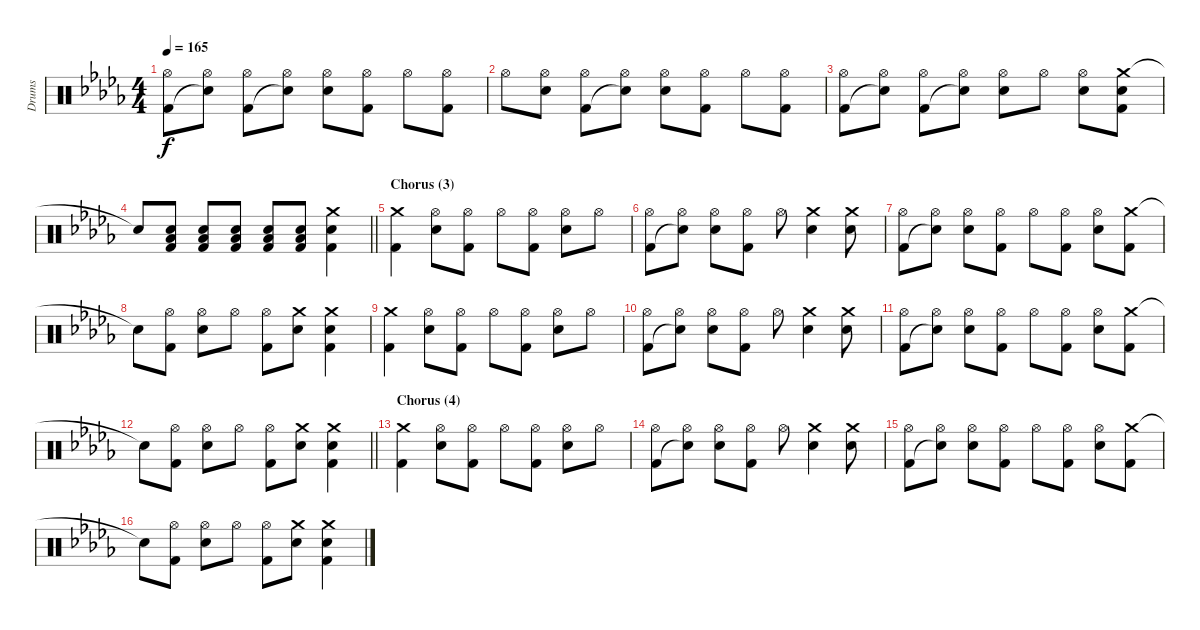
\track ("Drums" "Drums") {instrument percussion}
\staff {score}
\articulation defaults
\ts (4 4)
\tempo 165
\clef neutral
\ks bbminor
("Hi-Hat (open)" "Kick (hit) 2").8{dy f} ("Hi-Hat (open)" "Snare (hit)"{t}).8 ("Hi-Hat (open)" "Kick (hit) 2").8 ("Hi-Hat (open)" "Snare (hit)"{t}).8 ("Hi-Hat (open)" "Electric Snare (hit)").8 ("Hi-Hat (open)" "Kick (hit) 2").8 "Hi-Hat (open)".8 ("Hi-Hat (open)" "Kick (hit) 2").8 |
"Hi-Hat (open)".8 ("Hi-Hat (open)" "Electric Snare (hit)").8 ("Hi-Hat (open)" "Kick (hit) 2").8 ("Hi-Hat (open)" "Snare (hit)"{t}).8 ("Hi-Hat (open)" "Electric Snare (hit)").8 ("Hi-Hat (open)" "Kick (hit) 2").8 "Hi-Hat (open)".8 ("Hi-Hat (open)" "Kick (hit) 2").8 |
("Hi-Hat (open)" "Kick (hit) 2").8 ("Hi-Hat (open)" "Snare (hit)"{t}).8 ("Hi-Hat (open)" "Kick (hit) 2").8 ("Hi-Hat (open)" "Snare (hit)"{t}).8 ("Hi-Hat (open)" "Electric Snare (hit)").8 "Hi-Hat (open)".8 ("Hi-Hat (open)" "Electric Snare (hit)").8 ("Crash medium (hit)" "Electric Snare (hit)" "Kick (hit) 2").8 |
\barLineRight lightlight "Snare (hit)"{t}.8
("Electric Snare (hit)" "Low Floor Tom (hit)" "Kick (hit) 2").8 ("Electric Snare (hit)" "Low Floor Tom (hit)" "Kick (hit) 2").8 ("Electric Snare (hit)" "Low Floor Tom (hit)" "Kick (hit) 2").8 ("Electric Snare (hit)" "Low Floor Tom (hit)" "Kick (hit) 2").8 ("Electric Snare (hit)" "Low Floor Tom (hit)" "Kick (hit) 2").8 ("Crash medium (hit)" "Electric Snare (hit)" "Kick (hit) 2").4 |
\section ("" "Chorus (3)")
("Crash medium (hit)" "Kick (hit) 2").4 ("Hi-Hat (open)" "Electric Snare (hit)").8 ("Hi-Hat (open)" "Kick (hit) 2").8 "Hi-Hat (open)".8 ("Hi-Hat (open)" "Kick (hit) 2").8 ("Hi-Hat (open)" "Electric Snare (hit)").8 "Hi-Hat (open)".8 |
("Hi-Hat (open)" "Kick (hit) 2").8 ("Hi-Hat (open)" "Snare (hit)"{t}).8 ("Hi-Hat (open)" "Electric Snare (hit)").8 ("Hi-Hat (open)" "Kick (hit) 2").8 "Hi-Hat (open)".8 ("Crash medium (hit)" "Electric Snare (hit)").4 ("Crash medium (hit)" "Electric Snare (hit)").8 |
("Hi-Hat (open)" "Kick (hit) 2").8 ("Hi-Hat (open)" "Snare (hit)"{t}).8 ("Hi-Hat (open)" "Electric Snare (hit)").8 ("Hi-Hat (open)" "Kick (hit) 2").8 "Hi-Hat (open)".8 ("Hi-Hat (open)" "Kick (hit) 2").8 ("Hi-Hat (open)" "Electric Snare (hit)").8 ("Crash medium (hit)" "Kick (hit) 2").8 |
"Snare (hit)"{t}.8 ("Hi-Hat (open)" "Kick (hit) 2").8 ("Hi-Hat (open)" "Electric Snare (hit)").8 "Hi-Hat (open)".8 ("Hi-Hat (open)" "Kick (hit) 2").8 ("Crash medium (hit)" "Electric Snare (hit)").8 ("Crash medium (hit)" "Electric Snare (hit)" "Kick (hit) 2").4 |
("Crash medium (hit)" "Kick (hit) 2").4 ("Hi-Hat (open)" "Electric Snare (hit)").8 ("Hi-Hat (open)" "Kick (hit) 2").8 "Hi-Hat (open)".8 ("Hi-Hat (open)" "Kick (hit) 2").8 ("Hi-Hat (open)" "Electric Snare (hit)").8 "Hi-Hat (open)".8 |
("Hi-Hat (open)" "Kick (hit) 2").8 ("Hi-Hat (open)" "Snare (hit)"{t}).8 ("Hi-Hat (open)" "Electric Snare (hit)").8 ("Hi-Hat (open)" "Kick (hit) 2").8 "Hi-Hat (open)".8 ("Crash medium (hit)" "Electric Snare (hit)").4 ("Crash medium (hit)" "Electric Snare (hit)").8 |
("Hi-Hat (open)" "Kick (hit) 2").8 ("Hi-Hat (open)" "Snare (hit)"{t}).8 ("Hi-Hat (open)" "Electric Snare (hit)").8 ("Hi-Hat (open)" "Kick (hit) 2").8 "Hi-Hat (open)".8 ("Hi-Hat (open)" "Kick (hit) 2").8 ("Hi-Hat (open)" "Electric Snare (hit)").8 ("Crash medium (hit)" "Kick (hit) 2").8 |
\barLineRight lightlight "Snare (hit)"{t}.8
("Hi-Hat (open)" "Kick (hit) 2").8 ("Hi-Hat (open)" "Electric Snare (hit)").8 "Hi-Hat (open)".8 ("Hi-Hat (open)" "Kick (hit) 2").8 ("Crash medium (hit)" "Electric Snare (hit)").8 ("Crash medium (hit)" "Electric Snare (hit)" "Kick (hit) 2").4 |
\section ("" "Chorus (4)")
("Crash medium (hit)" "Kick (hit) 2").4 ("Hi-Hat (open)" "Electric Snare (hit)").8 ("Hi-Hat (open)" "Kick (hit) 2").8 "Hi-Hat (open)".8 ("Hi-Hat (open)" "Kick (hit) 2").8 ("Hi-Hat (open)" "Electric Snare (hit)").8 "Hi-Hat (open)".8 |
("Hi-Hat (open)" "Kick (hit) 2").8 ("Hi-Hat (open)" "Snare (hit)"{t}).8 ("Hi-Hat (open)" "Electric Snare (hit)").8 ("Hi-Hat (open)" "Kick (hit) 2").8 "Hi-Hat (open)".8 ("Crash medium (hit)" "Electric Snare (hit)").4 ("Crash medium (hit)" "Electric Snare (hit)").8 |
("Hi-Hat (open)" "Kick (hit) 2").8 ("Hi-Hat (open)" "Snare (hit)"{t}).8 ("Hi-Hat (open)" "Electric Snare (hit)").8 ("Hi-Hat (open)" "Kick (hit) 2").8 "Hi-Hat (open)".8 ("Hi-Hat (open)" "Kick (hit) 2").8 ("Hi-Hat (open)" "Electric Snare (hit)").8 ("Crash medium (hit)" "Kick (hit) 2").8 |
"Snare (hit)"{t}.8 ("Hi-Hat (open)" "Kick (hit) 2").8 ("Hi-Hat (open)" "Electric Snare (hit)").8 "Hi-Hat (open)".8 ("Hi-Hat (open)" "Kick (hit) 2").8 ("Crash medium (hit)" "Electric Snare (hit)").8 ("Crash medium (hit)" "Electric Snare (hit)" "Kick (hit) 2").4
